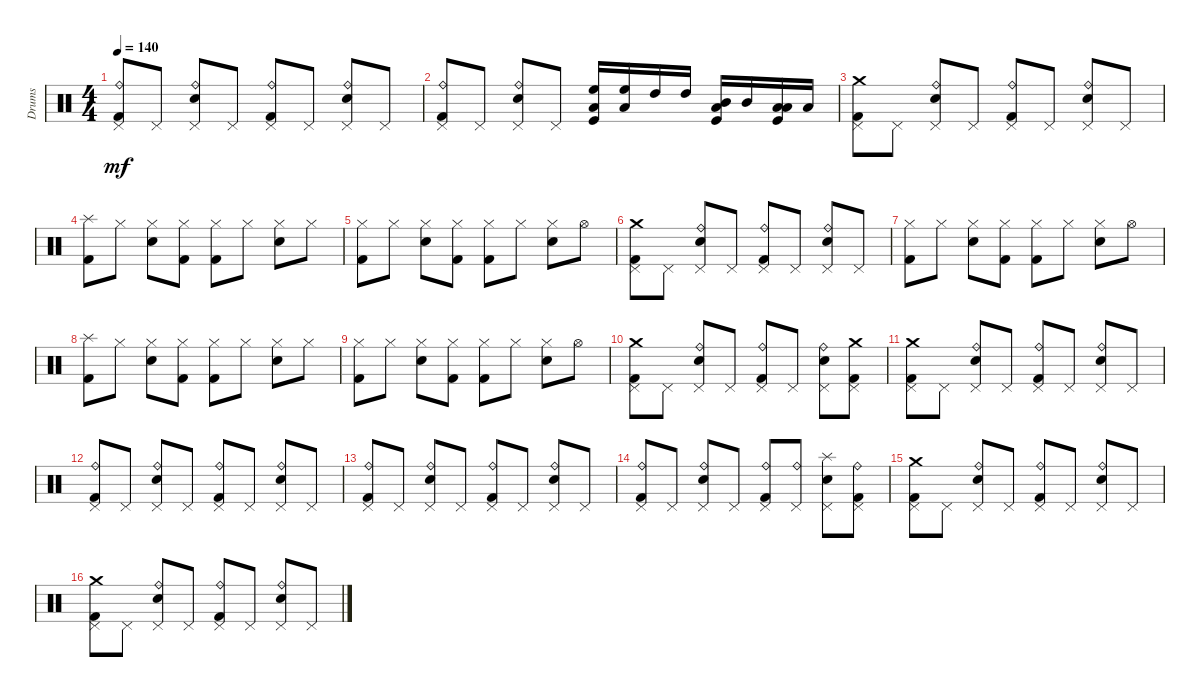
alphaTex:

\track ("Drums" "Drums") {instrument percussion}
\staff {score}
\articulation defaults
\ts (4 4)
\tempo 140
\clef neutral
\ks c
("Ride (bell)" "Pedal Hi-Hat (hit)" "Kick (hit) 2").8{dy mf} "Pedal Hi-Hat (hit)".8 ("Ride (bell)" "Pedal Hi-Hat (hit)" "Snare (hit) 2").8 "Pedal Hi-Hat (hit)".8 ("Ride (bell)" "Pedal Hi-Hat (hit)" "Kick (hit) 2").8 "Pedal Hi-Hat (hit)".8 ("Ride (bell)" "Pedal Hi-Hat (hit)" "Snare (hit) 2").8 "Pedal Hi-Hat (hit)".8 |
("Ride (bell)" "Pedal Hi-Hat (hit)" "Kick (hit) 2").8 "Pedal Hi-Hat (hit)".8 ("Ride (bell)" "Pedal Hi-Hat (hit)" "Snare (hit) 2").8 "Pedal Hi-Hat (hit)".8 ("High Floor Tom (hit)" "Low Floor Tom (hit)" "Kick (hit)").16 ("High Floor Tom (hit)" "Low Floor Tom (hit)").16 "High Tom (hit)".16 "High Tom (hit)".16 ("Mid Tom (hit)" "Low Floor Tom (hit)" "Kick (hit)").16 "Mid Tom (hit)".16 ("Low Tom (hit)" "Low Floor Tom (hit)" "Kick (hit)").16 "Low Tom (hit)".16 |
("Crash medium (hit)" "Pedal Hi-Hat (hit)" "Kick (hit) 2").8 "Pedal Hi-Hat (hit)".8 ("Ride (bell)" "Pedal Hi-Hat (hit)" "Snare (hit) 2").8 "Pedal Hi-Hat (hit)".8 ("Ride (bell)" "Pedal Hi-Hat (hit)" "Kick (hit) 2").8 "Pedal Hi-Hat (hit)".8 ("Ride (bell)" "Pedal Hi-Hat (hit)" "Snare (hit) 2").8 "Pedal Hi-Hat (hit)".8 |
("Splash (hit)" "Kick (hit) 2").8 "Hi-Hat (closed)".8 ("Hi-Hat (closed)" "Snare (hit) 2").8 ("Hi-Hat (closed)" "Kick (hit) 2").8 ("Hi-Hat (closed)" "Kick (hit) 2").8 "Hi-Hat (closed)".8 ("Hi-Hat (closed)" "Snare (hit) 2").8 "Hi-Hat (closed)".8 |
("Hi-Hat (closed)" "Kick (hit) 2").8 "Hi-Hat (closed)".8 ("Hi-Hat (closed)" "Snare (hit) 2").8 ("Hi-Hat (closed)" "Kick (hit) 2").8 ("Hi-Hat (closed)" "Kick (hit) 2").8 "Hi-Hat (closed)".8 ("Hi-Hat (closed)" "Snare (hit) 2").8 "Hi-Hat (open)".8 |
("Crash medium (hit)" "Pedal Hi-Hat (hit)" "Kick (hit) 2").8 "Pedal Hi-Hat (hit)".8 ("Ride (bell)" "Pedal Hi-Hat (hit)" "Snare (hit) 2").8 "Pedal Hi-Hat (hit)".8 ("Ride (bell)" "Pedal Hi-Hat (hit)" "Kick (hit) 2").8 "Pedal Hi-Hat (hit)".8 ("Ride (bell)" "Pedal Hi-Hat (hit)" "Snare (hit) 2").8 "Pedal Hi-Hat (hit)".8 |
("Hi-Hat (closed)" "Kick (hit) 2").8 "Hi-Hat (closed)".8 ("Hi-Hat (closed)" "Snare (hit) 2").8 ("Hi-Hat (closed)" "Kick (hit) 2").8 ("Hi-Hat (closed)" "Kick (hit) 2").8 "Hi-Hat (closed)".8 ("Hi-Hat (closed)" "Snare (hit) 2").8 "Hi-Hat (open)".8 |
("Splash (hit)" "Kick (hit) 2").8 "Hi-Hat (closed)".8 ("Hi-Hat (closed)" "Snare (hit) 2").8 ("Hi-Hat (closed)" "Kick (hit) 2").8 ("Hi-Hat (closed)" "Kick (hit) 2").8 "Hi-Hat (closed)".8 ("Hi-Hat (closed)" "Snare (hit) 2").8 "Hi-Hat (closed)".8 |
("Hi-Hat (closed)" "Kick (hit) 2").8 "Hi-Hat (closed)".8 ("Hi-Hat (closed)" "Snare (hit) 2").8 ("Hi-Hat (closed)" "Kick (hit) 2").8 ("Hi-Hat (closed)" "Kick (hit) 2").8 "Hi-Hat (closed)".8 ("Hi-Hat (closed)" "Snare (hit) 2").8 "Hi-Hat (open)".8 |
("Crash medium (hit)" "Pedal Hi-Hat (hit)" "Kick (hit) 2").8 "Pedal Hi-Hat (hit)".8 ("Ride (bell)" "Pedal Hi-Hat (hit)" "Snare (hit) 2").8 "Pedal Hi-Hat (hit)".8 ("Ride (bell)" "Pedal Hi-Hat (hit)" "Kick (hit) 2").8 "Pedal Hi-Hat (hit)".8 ("Ride (bell)" "Pedal Hi-Hat (hit)" "Snare (hit) 2").8 ("Crash medium (hit)" "Pedal Hi-Hat (hit)" "Kick (hit) 2").8 |
("Crash medium (hit)" "Pedal Hi-Hat (hit)" "Kick (hit) 2").8 "Pedal Hi-Hat (hit)".8 ("Ride (bell)" "Pedal Hi-Hat (hit)" "Snare (hit) 2").8 "Pedal Hi-Hat (hit)".8 ("Ride (bell)" "Pedal Hi-Hat (hit)" "Kick (hit) 2").8 "Pedal Hi-Hat (hit)".8 ("Ride (bell)" "Pedal Hi-Hat (hit)" "Snare (hit) 2").8 "Pedal Hi-Hat (hit)".8 |
("Ride (bell)" "Pedal Hi-Hat (hit)" "Kick (hit) 2").8 "Pedal Hi-Hat (hit)".8 ("Ride (bell)" "Pedal Hi-Hat (hit)" "Snare (hit) 2").8 "Pedal Hi-Hat (hit)".8 ("Ride (bell)" "Pedal Hi-Hat (hit)" "Kick (hit) 2").8 "Pedal Hi-Hat (hit)".8 ("Ride (bell)" "Pedal Hi-Hat (hit)" "Snare (hit) 2").8 "Pedal Hi-Hat (hit)".8 |
("Ride (bell)" "Pedal Hi-Hat (hit)" "Kick (hit) 2").8 "Pedal Hi-Hat (hit)".8 ("Ride (bell)" "Pedal Hi-Hat (hit)" "Snare (hit) 2").8 "Pedal Hi-Hat (hit)".8 ("Ride (bell)" "Pedal Hi-Hat (hit)" "Kick (hit) 2").8 "Pedal Hi-Hat (hit)".8 ("Ride (bell)" "Pedal Hi-Hat (hit)" "Snare (hit) 2").8 "Pedal Hi-Hat (hit)".8 |
("Ride (bell)" "Pedal Hi-Hat (hit)" "Kick (hit) 2").8 "Pedal Hi-Hat (hit)".8 ("Ride (bell)" "Pedal Hi-Hat (hit)" "Snare (hit) 2").8 "Pedal Hi-Hat (hit)".8 ("Ride (bell)" "Pedal Hi-Hat (hit)" "Kick (hit) 2").8 ("Ride (bell)" "Pedal Hi-Hat (hit)").8 ("Splash (hit)" "Pedal Hi-Hat (hit)" "Snare (hit) 2").8 ("Ride (bell)" "Pedal Hi-Hat (hit)" "Kick (hit) 2").8 |
("Crash medium (hit)" "Pedal Hi-Hat (hit)" "Kick (hit) 2").8 "Pedal Hi-Hat (hit)".8 ("Ride (bell)" "Pedal Hi-Hat (hit)" "Snare (hit) 2").8 "Pedal Hi-Hat (hit)".8 ("Ride (bell)" "Pedal Hi-Hat (hit)" "Kick (hit) 2").8 "Pedal Hi-Hat (hit)".8 ("Ride (bell)" "Pedal Hi-Hat (hit)" "Snare (hit) 2").8 "Pedal Hi-Hat (hit)".8 |
("Crash medium (hit)" "Pedal Hi-Hat (hit)" "Kick (hit) 2").8 "Pedal Hi-Hat (hit)".8 ("Ride (bell)" "Pedal Hi-Hat (hit)" "Snare (hit) 2").8 "Pedal Hi-Hat (hit)".8 ("Ride (bell)" "Pedal Hi-Hat (hit)" "Kick (hit) 2").8 "Pedal Hi-Hat (hit)".8 ("Ride (bell)" "Pedal Hi-Hat (hit)" "Snare (hit) 2").8 "Pedal Hi-Hat (hit)".8
